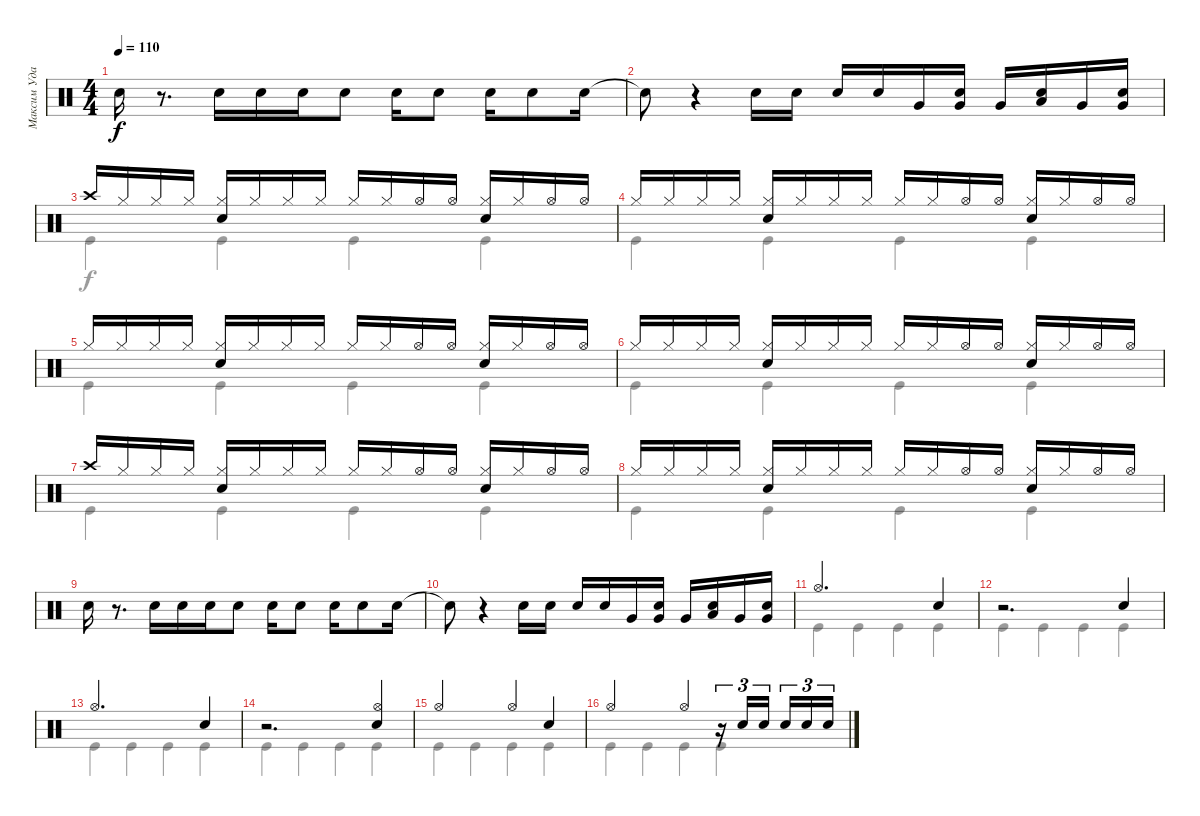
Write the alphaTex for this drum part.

\track ("Максим Удалов" "Максим Уда") {instrument percussion}
\staff {score}
\articulation defaults
\voice
\ts (4 4)
\tempo 110
\clef neutral
\ks c "Snare (hit) 2".16{dy f}
r.8{d} "Snare (hit) 2".16 "Snare (hit) 2".16 "Snare (hit) 2".16 "Snare (hit) 2".8 "Snare (hit) 2".16 "Snare (hit) 2".8 "Snare (hit) 2".16 "Snare (hit) 2".8 "Snare (hit) 2".16 |
"Snare (hit) 2"{t}.8 r.4 "Snare (hit) 2".16 "Snare (hit) 2".16 "Snare (hit) 2".16 "Snare (hit) 2".16 "Very Low Tom (hit)".16 ("Very Low Tom (hit)" "Snare (hit) 2").16 "Very Low Tom (hit)".16 ("Low Tom (hit)" "Snare (hit) 2").16 "Very Low Tom (hit)".16 ("Very Low Tom (hit)" "Snare (hit) 2").16 |
"Crash high (hit)".16 "Hi-Hat (closed)".16 "Hi-Hat (closed)".16 "Hi-Hat (closed)".16 ("Hi-Hat (closed)" "Snare (hit) 2").16 "Hi-Hat (closed)".16 "Hi-Hat (closed)".16 "Hi-Hat (closed)".16 "Hi-Hat (closed)".16 "Hi-Hat (closed)".16 "Hi-Hat (open)".16 "Hi-Hat (open)".16 ("Hi-Hat (closed)" "Snare (hit) 2").16 "Hi-Hat (closed)".16 "Hi-Hat (open)".16 "Hi-Hat (open)".16 |
"Hi-Hat (closed)".16 "Hi-Hat (closed)".16 "Hi-Hat (closed)".16 "Hi-Hat (closed)".16 ("Hi-Hat (closed)" "Snare (hit) 2").16 "Hi-Hat (closed)".16 "Hi-Hat (closed)".16 "Hi-Hat (closed)".16 "Hi-Hat (closed)".16 "Hi-Hat (closed)".16 "Hi-Hat (open)".16 "Hi-Hat (open)".16 ("Hi-Hat (closed)" "Snare (hit) 2").16 "Hi-Hat (closed)".16 "Hi-Hat (open)".16 "Hi-Hat (open)".16 |
"Hi-Hat (closed)".16 "Hi-Hat (closed)".16 "Hi-Hat (closed)".16 "Hi-Hat (closed)".16 ("Hi-Hat (closed)" "Snare (hit) 2").16 "Hi-Hat (closed)".16 "Hi-Hat (closed)".16 "Hi-Hat (closed)".16 "Hi-Hat (closed)".16 "Hi-Hat (closed)".16 "Hi-Hat (open)".16 "Hi-Hat (open)".16 ("Hi-Hat (closed)" "Snare (hit) 2").16 "Hi-Hat (closed)".16 "Hi-Hat (open)".16 "Hi-Hat (open)".16 |
"Hi-Hat (closed)".16 "Hi-Hat (closed)".16 "Hi-Hat (closed)".16 "Hi-Hat (closed)".16 ("Hi-Hat (closed)" "Snare (hit) 2").16 "Hi-Hat (closed)".16 "Hi-Hat (closed)".16 "Hi-Hat (closed)".16 "Hi-Hat (closed)".16 "Hi-Hat (closed)".16 "Hi-Hat (open)".16 "Hi-Hat (open)".16 ("Hi-Hat (closed)" "Snare (hit) 2").16 "Hi-Hat (closed)".16 "Hi-Hat (open)".16 "Hi-Hat (open)".16 |
"Crash high (hit)".16 "Hi-Hat (closed)".16 "Hi-Hat (closed)".16 "Hi-Hat (closed)".16 ("Hi-Hat (closed)" "Snare (hit) 2").16 "Hi-Hat (closed)".16 "Hi-Hat (closed)".16 "Hi-Hat (closed)".16 "Hi-Hat (closed)".16 "Hi-Hat (closed)".16 "Hi-Hat (open)".16 "Hi-Hat (open)".16 ("Hi-Hat (closed)" "Snare (hit) 2").16 "Hi-Hat (closed)".16 "Hi-Hat (open)".16 "Hi-Hat (open)".16 |
"Hi-Hat (closed)".16 "Hi-Hat (closed)".16 "Hi-Hat (closed)".16 "Hi-Hat (closed)".16 ("Hi-Hat (closed)" "Snare (hit) 2").16 "Hi-Hat (closed)".16 "Hi-Hat (closed)".16 "Hi-Hat (closed)".16 "Hi-Hat (closed)".16 "Hi-Hat (closed)".16 "Hi-Hat (open)".16 "Hi-Hat (open)".16 ("Hi-Hat (closed)" "Snare (hit) 2").16 "Hi-Hat (closed)".16 "Hi-Hat (open)".16 "Hi-Hat (open)".16 |
"Snare (hit) 2".16 r.8{d} "Snare (hit) 2".16 "Snare (hit) 2".16 "Snare (hit) 2".16 "Snare (hit) 2".8 "Snare (hit) 2".16 "Snare (hit) 2".8 "Snare (hit) 2".16 "Snare (hit) 2".8 "Snare (hit) 2".16 |
"Snare (hit) 2"{t}.8 r.4 "Snare (hit) 2".16 "Snare (hit) 2".16 "Snare (hit) 2".16 "Snare (hit) 2".16 "Very Low Tom (hit)".16 ("Very Low Tom (hit)" "Snare (hit) 2").16 "Very Low Tom (hit)".16 ("Low Tom (hit)" "Snare (hit) 2").16 "Very Low Tom (hit)".16 ("Very Low Tom (hit)" "Snare (hit) 2").16 |
"Hi-Hat (open)".2{d} "Snare (hit) 2".4 |
r.2{d} "Snare (hit) 2".4 |
"Hi-Hat (open)".2{d} "Snare (hit) 2".4 |
r.2{d} ("Snare (hit) 2" "Hi-Hat (open)").4 |
"Hi-Hat (open)".2 "Hi-Hat (open)".4 "Snare (hit) 2".4 |
"Hi-Hat (open)".2 "Hi-Hat (open)".4 r.16{tu (3 2)} "Snare (hit) 2".16{tu (3 2)} "Snare (hit) 2".16{tu (3 2) beam splitsecondary} "Snare (hit) 2".16{tu (3 2)} "Snare (hit) 2".16{tu (3 2)} "Snare (hit) 2".16{tu (3 2)}
\voice
\clef neutral
\ottava regular
\simile none
\ks c
|
|
"Kick (hit)".4 "Kick (hit)".4 "Kick (hit)".4 "Kick (hit)".4 |
"Kick (hit)".4 "Kick (hit)".4 "Kick (hit)".4 "Kick (hit)".4 |
"Kick (hit)".4 "Kick (hit)".4 "Kick (hit)".4 "Kick (hit)".4 |
"Kick (hit)".4 "Kick (hit)".4 "Kick (hit)".4 "Kick (hit)".4 |
"Kick (hit)".4 "Kick (hit)".4 "Kick (hit)".4 "Kick (hit)".4 |
"Kick (hit)".4 "Kick (hit)".4 "Kick (hit)".4 "Kick (hit)".4 |
|
|
"Kick (hit)".4 "Kick (hit)".4 "Kick (hit)".4 "Kick (hit)".4 |
"Kick (hit)".4 "Kick (hit)".4 "Kick (hit)".4 "Kick (hit)".4 |
"Kick (hit)".4 "Kick (hit)".4 "Kick (hit)".4 "Kick (hit)".4 |
"Kick (hit)".4 "Kick (hit)".4 "Kick (hit)".4 "Kick (hit)".4 |
"Kick (hit)".4 "Kick (hit)".4 "Kick (hit)".4 "Kick (hit)".4 |
"Kick (hit)".4 "Kick (hit)".4 "Kick (hit)".4 "Kick (hit)".4
